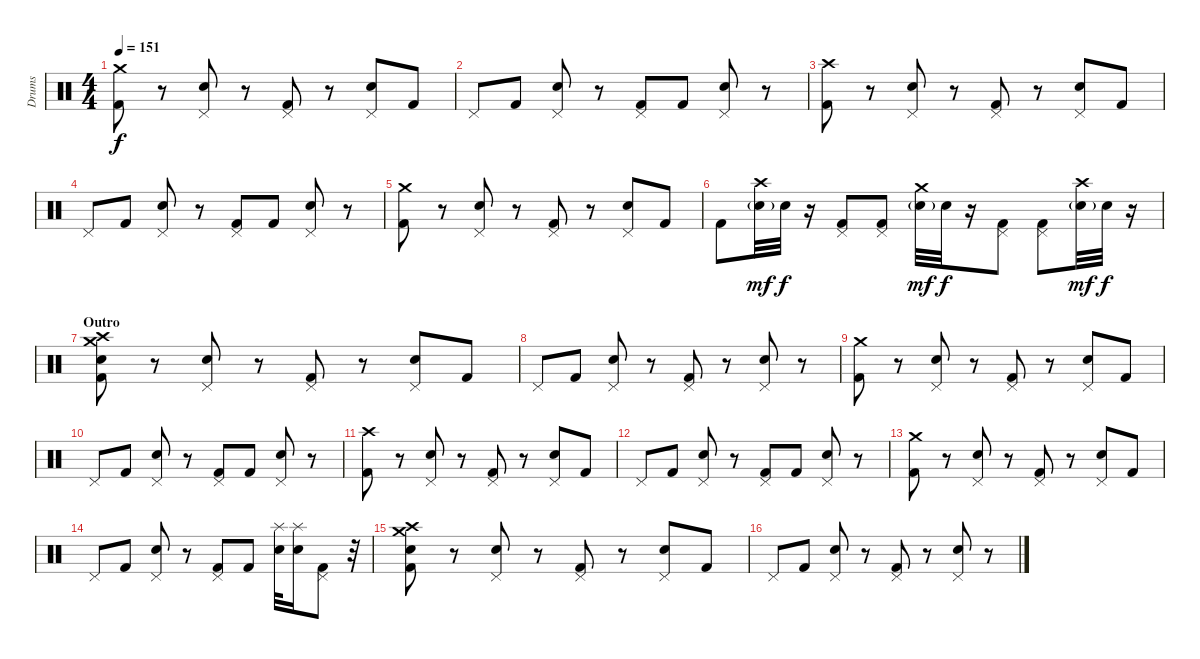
\track ("Drums" "Drums") {instrument percussion}
\staff {score}
\articulation defaults
\ts (4 4)
\tempo 151
\clef neutral
\ks c
("Kick (hit) 2" "Crash medium (hit)").8{dy f} r.8 ("Pedal Hi-Hat (hit)" "Electric Snare (hit)").8 r.8 ("Pedal Hi-Hat (hit)" "Kick (hit) 2").8 r.8 ("Pedal Hi-Hat (hit)" "Electric Snare (hit)").8 "Kick (hit) 2".8 |
"Pedal Hi-Hat (hit)".8 "Kick (hit) 2".8 ("Pedal Hi-Hat (hit)" "Electric Snare (hit)").8 r.8 ("Pedal Hi-Hat (hit)" "Kick (hit) 2").8 "Kick (hit) 2".8 ("Pedal Hi-Hat (hit)" "Electric Snare (hit)").8 r.8 |
("Kick (hit) 2" "Crash high (hit)").8 r.8 ("Pedal Hi-Hat (hit)" "Electric Snare (hit)").8 r.8 ("Pedal Hi-Hat (hit)" "Kick (hit) 2").8 r.8 ("Pedal Hi-Hat (hit)" "Electric Snare (hit)").8 "Kick (hit) 2".8 |
"Pedal Hi-Hat (hit)".8 "Kick (hit) 2".8 ("Pedal Hi-Hat (hit)" "Electric Snare (hit)").8 r.8 ("Pedal Hi-Hat (hit)" "Kick (hit) 2").8 "Kick (hit) 2".8 ("Pedal Hi-Hat (hit)" "Electric Snare (hit)").8 r.8 |
("Kick (hit) 2" "Crash medium (hit)").8 r.8 ("Pedal Hi-Hat (hit)" "Electric Snare (hit)").8 r.8 ("Pedal Hi-Hat (hit)" "Kick (hit) 2").8 r.8 ("Pedal Hi-Hat (hit)" "Electric Snare (hit)").8 "Kick (hit) 2".8 |
"Kick (hit) 2".8{volume 16} ("Snare (hit) 2"{g} "Crash high (hit)").32{dy mf} "Snare (hit) 2".32{dy f} r.16 ("Kick (hit) 2" "Pedal Hi-Hat (hit)").8 ("Kick (hit) 2" "Pedal Hi-Hat (hit)").8 ("Snare (hit) 2"{g} "Crash medium (hit)").32{dy mf} "Snare (hit) 2".32{dy f} r.16 ("Kick (hit) 2" "Pedal Hi-Hat (hit)").8 ("Kick (hit) 2" "Pedal Hi-Hat (hit)").8 ("Snare (hit) 2"{g} "Crash high (hit)").32{dy mf} "Snare (hit) 2".32{dy f} r.16 |
\section ("" "Outro")
("Kick (hit) 2" "Crash medium (hit)" "Electric Snare (hit)" "Crash high (hit)").8{volume 13} r.8 ("Pedal Hi-Hat (hit)" "Electric Snare (hit)").8 r.8 ("Pedal Hi-Hat (hit)" "Kick (hit) 2").8 r.8 ("Pedal Hi-Hat (hit)" "Electric Snare (hit)").8 "Kick (hit) 2".8 |
"Pedal Hi-Hat (hit)".8 "Kick (hit) 2".8 ("Pedal Hi-Hat (hit)" "Electric Snare (hit)").8 r.8 ("Pedal Hi-Hat (hit)" "Kick (hit) 2").8 r.8 ("Pedal Hi-Hat (hit)" "Electric Snare (hit)").8 r.8 |
("Kick (hit) 2" "Crash medium (hit)").8 r.8 ("Pedal Hi-Hat (hit)" "Electric Snare (hit)").8 r.8 ("Pedal Hi-Hat (hit)" "Kick (hit) 2").8 r.8 ("Pedal Hi-Hat (hit)" "Electric Snare (hit)").8 "Kick (hit) 2".8 |
"Pedal Hi-Hat (hit)".8 "Kick (hit) 2".8 ("Pedal Hi-Hat (hit)" "Electric Snare (hit)").8 r.8 ("Pedal Hi-Hat (hit)" "Kick (hit) 2").8 "Kick (hit) 2".8 ("Pedal Hi-Hat (hit)" "Electric Snare (hit)").8 r.8 |
("Kick (hit) 2" "Crash high (hit)").8 r.8 ("Pedal Hi-Hat (hit)" "Electric Snare (hit)").8 r.8 ("Pedal Hi-Hat (hit)" "Kick (hit) 2").8 r.8 ("Pedal Hi-Hat (hit)" "Electric Snare (hit)").8 "Kick (hit) 2".8 |
"Pedal Hi-Hat (hit)".8 "Kick (hit) 2".8 ("Pedal Hi-Hat (hit)" "Electric Snare (hit)").8 r.8 ("Pedal Hi-Hat (hit)" "Kick (hit) 2").8 "Kick (hit) 2".8 ("Pedal Hi-Hat (hit)" "Electric Snare (hit)").8 r.8 |
("Kick (hit) 2" "Crash medium (hit)").8{volume 11} r.8 ("Pedal Hi-Hat (hit)" "Electric Snare (hit)").8 r.8 ("Pedal Hi-Hat (hit)" "Kick (hit) 2").8 r.8 ("Pedal Hi-Hat (hit)" "Electric Snare (hit)").8 "Kick (hit) 2".8 |
"Pedal Hi-Hat (hit)".8 "Kick (hit) 2".8 ("Pedal Hi-Hat (hit)" "Electric Snare (hit)").8 r.8 ("Pedal Hi-Hat (hit)" "Kick (hit) 2").8 "Kick (hit) 2".8 ("Splash (hit)" "Electric Snare (hit)").32 ("Splash (hit)" "Electric Snare (hit)").16 ("Pedal Hi-Hat (hit)" "Kick (hit) 2").8 r.32 |
("Kick (hit) 2" "Crash medium (hit)" "Electric Snare (hit)" "Crash high (hit)").8{volume 9} r.8 ("Pedal Hi-Hat (hit)" "Electric Snare (hit)").8 r.8 ("Pedal Hi-Hat (hit)" "Kick (hit) 2").8 r.8 ("Pedal Hi-Hat (hit)" "Electric Snare (hit)").8 "Kick (hit) 2".8 |
"Pedal Hi-Hat (hit)".8 "Kick (hit) 2".8 ("Pedal Hi-Hat (hit)" "Electric Snare (hit)").8 r.8 ("Pedal Hi-Hat (hit)" "Kick (hit) 2").8 r.8 ("Pedal Hi-Hat (hit)" "Electric Snare (hit)").8 r.8
